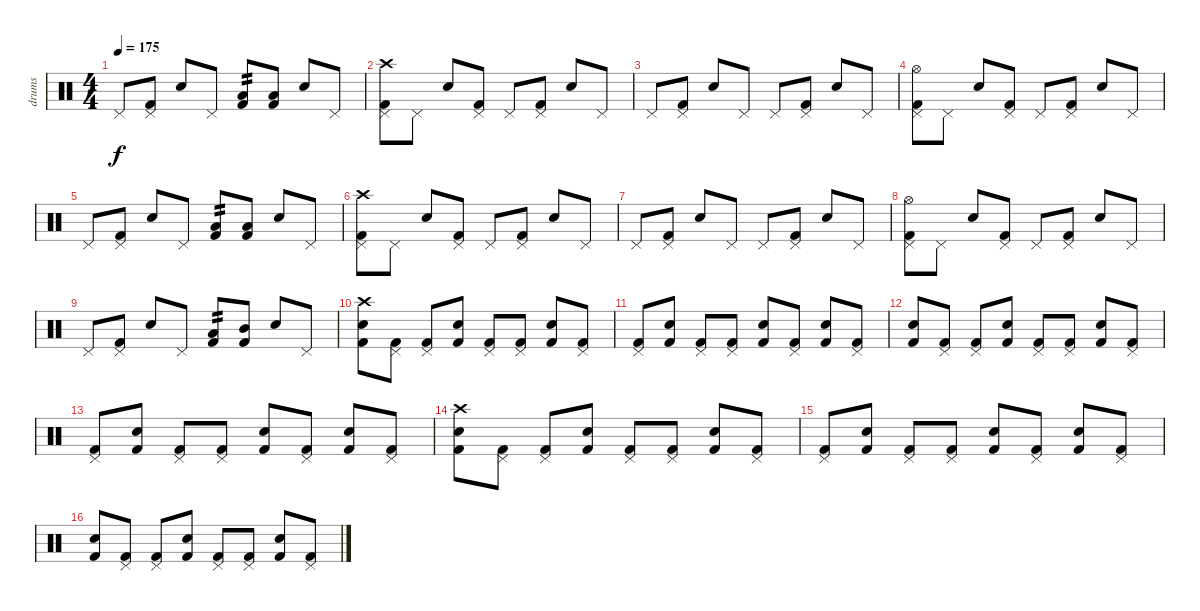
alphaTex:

\track ("drums" "drums") {instrument percussion}
\staff {score}
\articulation defaults
\ts (4 4)
\tempo 175
\clef neutral
\ks c "Pedal Hi-Hat (hit)".8{dy f}
("Pedal Hi-Hat (hit)" "Kick (hit) 2").8 "Electric Snare (hit)".8 "Pedal Hi-Hat (hit)".8 ("Low Tom (hit)" "Kick (hit) 2").8{tp 2} ("Low Tom (hit)" "Kick (hit) 2").8 "Electric Snare (hit)".8 "Pedal Hi-Hat (hit)".8 |
("Crash high (hit)" "Pedal Hi-Hat (hit)" "Kick (hit) 2").8 "Pedal Hi-Hat (hit)".8 "Electric Snare (hit)".8 ("Pedal Hi-Hat (hit)" "Kick (hit) 2").8 "Pedal Hi-Hat (hit)".8 ("Pedal Hi-Hat (hit)" "Kick (hit) 2").8 "Electric Snare (hit)".8 "Pedal Hi-Hat (hit)".8 |
"Pedal Hi-Hat (hit)".8 ("Pedal Hi-Hat (hit)" "Kick (hit) 2").8 "Electric Snare (hit)".8 "Pedal Hi-Hat (hit)".8 "Pedal Hi-Hat (hit)".8 ("Pedal Hi-Hat (hit)" "Kick (hit) 2").8 "Electric Snare (hit)".8 "Pedal Hi-Hat (hit)".8 |
("Hi-Hat (open)" "Pedal Hi-Hat (hit)" "Kick (hit) 2").8 "Pedal Hi-Hat (hit)".8 "Electric Snare (hit)".8 ("Pedal Hi-Hat (hit)" "Kick (hit) 2").8 "Pedal Hi-Hat (hit)".8 ("Pedal Hi-Hat (hit)" "Kick (hit) 2").8 "Electric Snare (hit)".8 "Pedal Hi-Hat (hit)".8 |
"Pedal Hi-Hat (hit)".8 ("Pedal Hi-Hat (hit)" "Kick (hit) 2").8 "Electric Snare (hit)".8 "Pedal Hi-Hat (hit)".8 ("Low Tom (hit)" "Kick (hit) 2").8{tp 2} ("Low Tom (hit)" "Kick (hit) 2").8 "Electric Snare (hit)".8 "Pedal Hi-Hat (hit)".8 |
("Crash high (hit)" "Pedal Hi-Hat (hit)" "Kick (hit) 2").8 "Pedal Hi-Hat (hit)".8 "Electric Snare (hit)".8 ("Pedal Hi-Hat (hit)" "Kick (hit) 2").8 "Pedal Hi-Hat (hit)".8 ("Pedal Hi-Hat (hit)" "Kick (hit) 2").8 "Electric Snare (hit)".8 "Pedal Hi-Hat (hit)".8 |
"Pedal Hi-Hat (hit)".8 ("Pedal Hi-Hat (hit)" "Kick (hit) 2").8 "Electric Snare (hit)".8 "Pedal Hi-Hat (hit)".8 "Pedal Hi-Hat (hit)".8 ("Pedal Hi-Hat (hit)" "Kick (hit) 2").8 "Electric Snare (hit)".8 "Pedal Hi-Hat (hit)".8 |
("Hi-Hat (open)" "Pedal Hi-Hat (hit)" "Kick (hit) 2").8 "Pedal Hi-Hat (hit)".8 "Electric Snare (hit)".8 ("Pedal Hi-Hat (hit)" "Kick (hit) 2").8 "Pedal Hi-Hat (hit)".8 ("Pedal Hi-Hat (hit)" "Kick (hit) 2").8 "Electric Snare (hit)".8 "Pedal Hi-Hat (hit)".8 |
"Pedal Hi-Hat (hit)".8 ("Pedal Hi-Hat (hit)" "Kick (hit) 2").8 "Electric Snare (hit)".8 "Pedal Hi-Hat (hit)".8 ("Low Tom (hit)" "Kick (hit) 2").8{tp 2} ("Mid Tom (hit)" "Kick (hit) 2").8 "Electric Snare (hit)".8 "Pedal Hi-Hat (hit)".8 |
("Crash high (hit)" "Electric Snare (hit)" "Kick (hit) 2").8 ("Pedal Hi-Hat (hit)" "Kick (hit) 2").8 ("Pedal Hi-Hat (hit)" "Kick (hit) 2").8 ("Electric Snare (hit)" "Kick (hit) 2").8 ("Pedal Hi-Hat (hit)" "Kick (hit) 2").8 ("Pedal Hi-Hat (hit)" "Kick (hit) 2").8 ("Electric Snare (hit)" "Kick (hit) 2").8 ("Pedal Hi-Hat (hit)" "Kick (hit) 2").8 |
("Pedal Hi-Hat (hit)" "Kick (hit) 2").8 ("Electric Snare (hit)" "Kick (hit) 2").8 ("Pedal Hi-Hat (hit)" "Kick (hit) 2").8 ("Pedal Hi-Hat (hit)" "Kick (hit) 2").8 ("Electric Snare (hit)" "Kick (hit) 2").8 ("Pedal Hi-Hat (hit)" "Kick (hit) 2").8 ("Electric Snare (hit)" "Kick (hit) 2").8 ("Pedal Hi-Hat (hit)" "Kick (hit) 2").8 |
("Electric Snare (hit)" "Kick (hit) 2").8 ("Pedal Hi-Hat (hit)" "Kick (hit) 2").8 ("Pedal Hi-Hat (hit)" "Kick (hit) 2").8 ("Electric Snare (hit)" "Kick (hit) 2").8 ("Pedal Hi-Hat (hit)" "Kick (hit) 2").8 ("Pedal Hi-Hat (hit)" "Kick (hit) 2").8 ("Electric Snare (hit)" "Kick (hit) 2").8 ("Pedal Hi-Hat (hit)" "Kick (hit) 2").8 |
("Pedal Hi-Hat (hit)" "Kick (hit) 2").8 ("Electric Snare (hit)" "Kick (hit) 2").8 ("Pedal Hi-Hat (hit)" "Kick (hit) 2").8 ("Pedal Hi-Hat (hit)" "Kick (hit) 2").8 ("Electric Snare (hit)" "Kick (hit) 2").8 ("Pedal Hi-Hat (hit)" "Kick (hit) 2").8 ("Electric Snare (hit)" "Kick (hit) 2").8 ("Pedal Hi-Hat (hit)" "Kick (hit) 2").8 |
("Crash high (hit)" "Electric Snare (hit)" "Kick (hit) 2").8 ("Pedal Hi-Hat (hit)" "Kick (hit) 2").8 ("Pedal Hi-Hat (hit)" "Kick (hit) 2").8 ("Electric Snare (hit)" "Kick (hit) 2").8 ("Pedal Hi-Hat (hit)" "Kick (hit) 2").8 ("Pedal Hi-Hat (hit)" "Kick (hit) 2").8 ("Electric Snare (hit)" "Kick (hit) 2").8 ("Pedal Hi-Hat (hit)" "Kick (hit) 2").8 |
("Pedal Hi-Hat (hit)" "Kick (hit) 2").8 ("Electric Snare (hit)" "Kick (hit) 2").8 ("Pedal Hi-Hat (hit)" "Kick (hit) 2").8 ("Pedal Hi-Hat (hit)" "Kick (hit) 2").8 ("Electric Snare (hit)" "Kick (hit) 2").8 ("Pedal Hi-Hat (hit)" "Kick (hit) 2").8 ("Electric Snare (hit)" "Kick (hit) 2").8 ("Pedal Hi-Hat (hit)" "Kick (hit) 2").8 |
("Electric Snare (hit)" "Kick (hit) 2").8 ("Pedal Hi-Hat (hit)" "Kick (hit) 2").8 ("Pedal Hi-Hat (hit)" "Kick (hit) 2").8 ("Electric Snare (hit)" "Kick (hit) 2").8 ("Pedal Hi-Hat (hit)" "Kick (hit) 2").8 ("Pedal Hi-Hat (hit)" "Kick (hit) 2").8 ("Electric Snare (hit)" "Kick (hit) 2").8 ("Pedal Hi-Hat (hit)" "Kick (hit) 2").8
